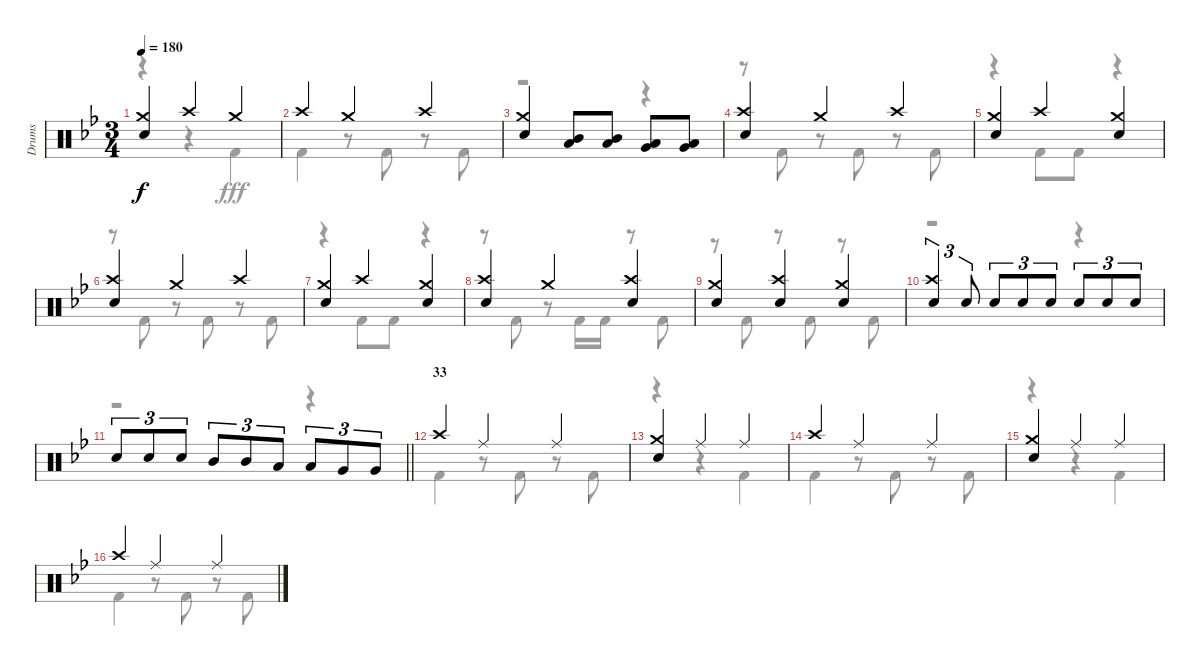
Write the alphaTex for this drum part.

\track ("Drums" "Drums") {instrument percussion}
\staff {score}
\articulation defaults
\voice
\ts (3 4)
\tempo 180
\clef neutral
\ks bb
("Crash medium (hit)" "Snare (hit) 2").4{dy f} "Crash high (hit)".4 "Crash medium (hit)".4 |
"Crash high (hit)".4 "Crash medium (hit)".4 "Crash high (hit)".4 |
("Crash medium (hit)" "Snare (hit) 2").4 ("Mid Tom (hit)" "Low Tom (hit)").8 ("Mid Tom (hit)" "Low Tom (hit)").8 ("Low Tom (hit)" "Very Low Tom (hit)").8 ("Low Tom (hit)" "Very Low Tom (hit)").8 |
("Crash high (hit)" "Snare (hit) 2").4 "Crash medium (hit)".4 "Crash high (hit)".4 |
("Crash medium (hit)" "Snare (hit) 2").4 "Crash high (hit)".4 ("Crash medium (hit)" "Snare (hit) 2").4 |
("Crash high (hit)" "Snare (hit) 2").4 "Crash medium (hit)".4 "Crash high (hit)".4 |
("Crash medium (hit)" "Snare (hit) 2").4 "Crash high (hit)".4 ("Crash medium (hit)" "Snare (hit) 2").4 |
("Crash high (hit)" "Snare (hit) 2").4 "Crash medium (hit)".4 ("Crash high (hit)" "Snare (hit) 2").4 |
("Crash medium (hit)" "Snare (hit) 2").4 ("Crash high (hit)" "Snare (hit) 2").4 ("Crash medium (hit)" "Snare (hit) 2").4 |
("Crash high (hit)" "Snare (hit) 2").4{tu (3 2)} "Snare (hit) 2".8{tu (3 2)} "Snare (hit) 2".8{tu (3 2)} "Snare (hit) 2".8{tu (3 2)} "Snare (hit) 2".8{tu (3 2)} "Snare (hit) 2".8{tu (3 2)} "Snare (hit) 2".8{tu (3 2)} "Snare (hit) 2".8{tu (3 2)} |
\barLineRight lightlight "Snare (hit) 2".8{tu (3 2)} "Snare (hit) 2".8{tu (3 2)} "Snare (hit) 2".8{tu (3 2)} "Mid Tom (hit)".8{tu (3 2)} "Mid Tom (hit)".8{tu (3 2)} "Low Tom (hit)".8{tu (3 2)} "Low Tom (hit)".8{tu (3 2)} "Very Low Tom (hit)".8{tu (3 2)} "Very Low Tom (hit)".8{tu (3 2)}
|
\section ("" "33")
"Crash high (hit)".4 "Ride (middle)".4 "Ride (middle)".4 |
("Crash medium (hit)" "Snare (hit) 2").4 "Ride (middle)".4 "Ride (middle)".4 |
"Crash high (hit)".4 "Ride (middle)".4 "Ride (middle)".4 |
("Crash medium (hit)" "Snare (hit) 2").4 "Ride (middle)".4 "Ride (middle)".4 |
"Crash high (hit)".4 "Ride (middle)".4 "Ride (middle)".4
\voice
\clef neutral
\ottava regular
\simile none
\ks bb
r.4{dy fff} r.4 "Kick (hit) 2".4 |
"Kick (hit) 2".4 r.8 "Kick (hit) 2".8 r.8 "Kick (hit) 2".8 |
r.2 r.4 |
r.8 "Kick (hit) 2".8 r.8 "Kick (hit) 2".8 r.8 "Kick (hit) 2".8 |
r.4 "Kick (hit) 2".8 "Kick (hit) 2".8 r.4 |
r.8 "Kick (hit) 2".8 r.8 "Kick (hit) 2".8 r.8 "Kick (hit) 2".8 |
r.4 "Kick (hit) 2".8 "Kick (hit) 2".8 r.4 |
r.8 "Kick (hit) 2".8 r.8 "Kick (hit) 2".16 "Kick (hit) 2".16 r.8 "Kick (hit) 2".8 |
r.8 "Kick (hit) 2".8 r.8 "Kick (hit) 2".8 r.8 "Kick (hit) 2".8 |
r.2 r.4 |
\barLineRight lightlight
r.2 r.4 |
"Kick (hit) 2".4 r.8 "Kick (hit) 2".8 r.8 "Kick (hit) 2".8 |
r.4 r.4 "Kick (hit) 2".4 |
"Kick (hit) 2".4 r.8 "Kick (hit) 2".8 r.8 "Kick (hit) 2".8 |
r.4 r.4 "Kick (hit) 2".4 |
"Kick (hit) 2".4 r.8 "Kick (hit) 2".8 r.8 "Kick (hit) 2".8
